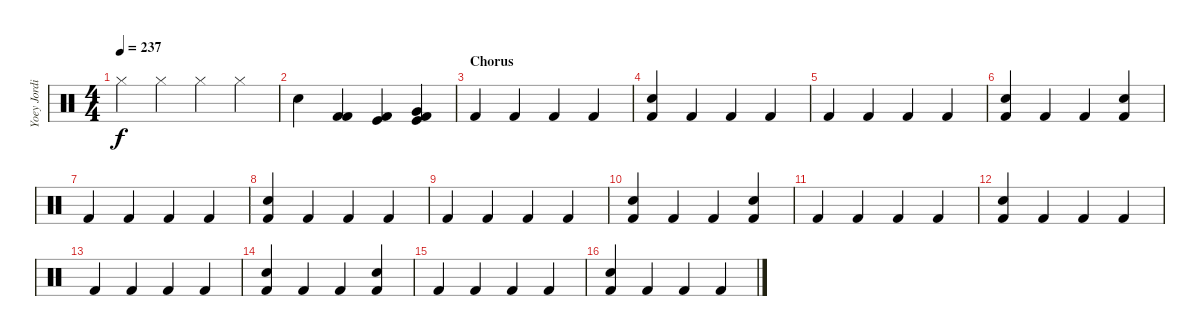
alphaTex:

\track ("Yoey Jordison" "Yoey Jordi") {instrument percussion}
\staff {score}
\articulation defaults
\ts (4 4)
\tempo 237
\clef neutral
\ks c "Hi-Hat (closed)".4{dy f} "Hi-Hat (closed)".4 "Hi-Hat (closed)".4 "Hi-Hat (closed)".4
|
"Snare (hit) 2".4 ("Kick (hit) 2" "Kick (hit) 2").4 ("Kick (hit) 2" "Kick (hit)").4 ("Kick (hit)" "Kick (hit) 2" "Very Low Tom (hit)").4 |
\section ("" "Chorus")
"Kick (hit) 2".4 "Kick (hit) 2".4 "Kick (hit) 2".4 "Kick (hit) 2".4 |
("Kick (hit) 2" "Snare (hit) 2").4 "Kick (hit) 2".4 "Kick (hit) 2".4 "Kick (hit) 2".4 |
"Kick (hit) 2".4 "Kick (hit) 2".4 "Kick (hit) 2".4 "Kick (hit) 2".4 |
("Kick (hit) 2" "Snare (hit) 2").4 "Kick (hit) 2".4 "Kick (hit) 2".4 ("Kick (hit) 2" "Snare (hit) 2").4 |
"Kick (hit) 2".4 "Kick (hit) 2".4 "Kick (hit) 2".4 "Kick (hit) 2".4 |
("Kick (hit) 2" "Snare (hit) 2").4 "Kick (hit) 2".4 "Kick (hit) 2".4 "Kick (hit) 2".4 |
"Kick (hit) 2".4 "Kick (hit) 2".4 "Kick (hit) 2".4 "Kick (hit) 2".4 |
("Kick (hit) 2" "Snare (hit) 2").4 "Kick (hit) 2".4 "Kick (hit) 2".4 ("Kick (hit) 2" "Snare (hit) 2").4 |
"Kick (hit) 2".4 "Kick (hit) 2".4 "Kick (hit) 2".4 "Kick (hit) 2".4 |
("Kick (hit) 2" "Snare (hit) 2").4 "Kick (hit) 2".4 "Kick (hit) 2".4 "Kick (hit) 2".4 |
"Kick (hit) 2".4 "Kick (hit) 2".4 "Kick (hit) 2".4 "Kick (hit) 2".4 |
("Kick (hit) 2" "Snare (hit) 2").4 "Kick (hit) 2".4 "Kick (hit) 2".4 ("Kick (hit) 2" "Snare (hit) 2").4 |
"Kick (hit) 2".4 "Kick (hit) 2".4 "Kick (hit) 2".4 "Kick (hit) 2".4 |
("Kick (hit) 2" "Snare (hit) 2").4 "Kick (hit) 2".4 "Kick (hit) 2".4 "Kick (hit) 2".4
